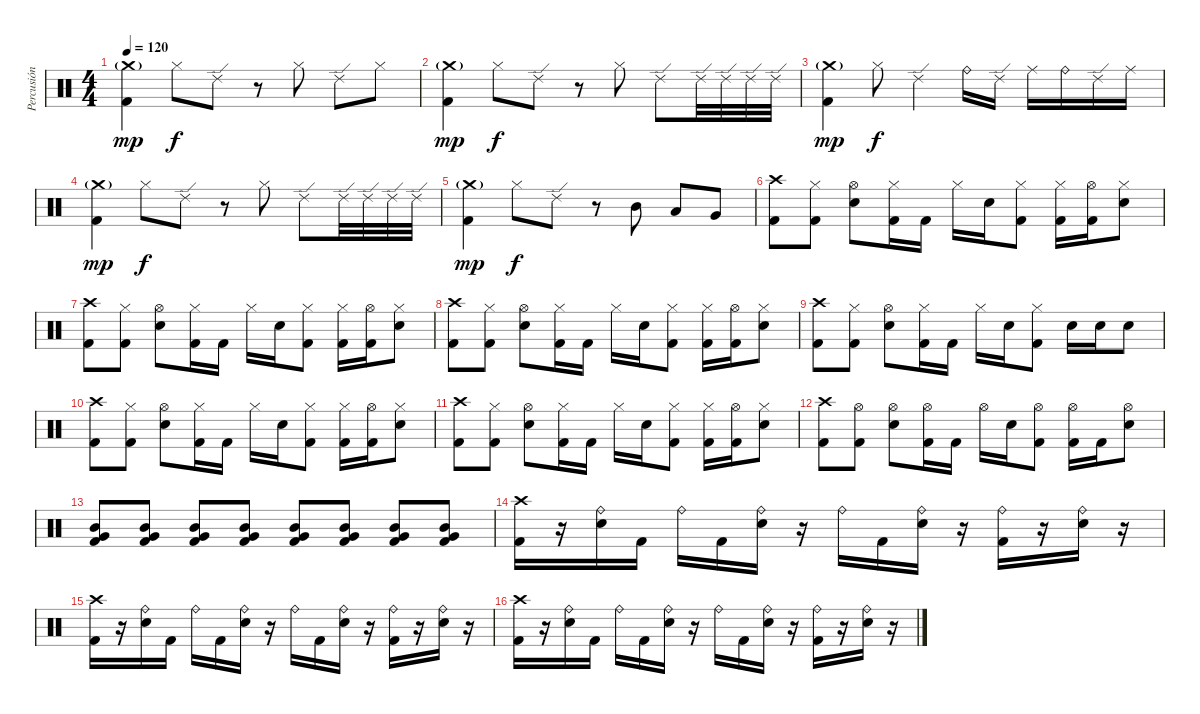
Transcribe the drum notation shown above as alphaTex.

\track ("Percusión" "Percusión") {instrument percussion}
\staff {score}
\articulation defaults
\ts (4 4)
\tempo 120
\clef neutral
\ks c
("Crash medium (hit)"{g} "Kick (hit) 2").4{dy mp} "Hi-Hat (closed)".8{dy f} "Ride (edge) 2".8 r.8 "Hi-Hat (closed)".8 "Ride (edge) 2".8 "Hi-Hat (closed)".8 |
("Crash medium (hit)"{g} "Kick (hit) 2").4{dy mp} "Hi-Hat (closed)".8{dy f} "Ride (edge) 2".8 r.8 "Hi-Hat (closed)".8 "Ride (edge) 2".8 "Ride (edge) 2".32 "Ride (edge) 2".32 "Ride (edge) 2".32 "Ride (edge) 2".32 |
("Crash medium (hit)"{g} "Kick (hit) 2").4{dy mp} "Hi-Hat (closed)".8{dy f} "Ride (edge) 2".4 "Ride (bell)".16 "Ride (edge) 2".16 "Ride (middle)".16 "Ride (bell)".16 "Ride (edge) 2".16 "Ride (middle)".16 |
("Crash medium (hit)"{g} "Kick (hit) 2").4{dy mp} "Hi-Hat (closed)".8{dy f} "Ride (edge) 2".8 r.8 "Hi-Hat (closed)".8 "Ride (edge) 2".8 "Ride (edge) 2".32 "Ride (edge) 2".32 "Ride (edge) 2".32 "Ride (edge) 2".32 |
("Crash medium (hit)"{g} "Kick (hit) 2").4{dy mp} "Hi-Hat (closed)".8{dy f} "Ride (edge) 2".8 r.8 "Mid Tom (hit)".8 "Low Tom (hit)".8 "Very Low Tom (hit)".8 |
("Crash high (hit)" "Kick (hit) 2").8 ("Hi-Hat (closed)" "Kick (hit) 2").8 ("Hi-Hat (open)" "Electric Snare (hit)").8 ("Hi-Hat (closed)" "Kick (hit) 2").16 "Kick (hit) 2".16 "Hi-Hat (closed)".16 "Electric Snare (hit)".16 ("Hi-Hat (closed)" "Kick (hit) 2").8 ("Hi-Hat (closed)" "Kick (hit) 2").16 ("Hi-Hat (open)" "Kick (hit) 2").16 ("Hi-Hat (closed)" "Electric Snare (hit)").8 |
("Crash high (hit)" "Kick (hit) 2").8 ("Hi-Hat (closed)" "Kick (hit) 2").8 ("Hi-Hat (open)" "Electric Snare (hit)").8 ("Hi-Hat (closed)" "Kick (hit) 2").16 "Kick (hit) 2".16 "Hi-Hat (closed)".16 "Electric Snare (hit)".16 ("Hi-Hat (closed)" "Kick (hit) 2").8 ("Hi-Hat (closed)" "Kick (hit) 2").16 ("Hi-Hat (open)" "Kick (hit) 2").16 ("Hi-Hat (closed)" "Electric Snare (hit)").8 |
("Crash high (hit)" "Kick (hit) 2").8 ("Hi-Hat (closed)" "Kick (hit) 2").8 ("Hi-Hat (open)" "Electric Snare (hit)").8 ("Hi-Hat (closed)" "Kick (hit) 2").16 "Kick (hit) 2".16 "Hi-Hat (closed)".16 "Electric Snare (hit)".16 ("Hi-Hat (closed)" "Kick (hit) 2").8 ("Hi-Hat (closed)" "Kick (hit) 2").16 ("Hi-Hat (open)" "Kick (hit) 2").16 ("Hi-Hat (closed)" "Electric Snare (hit)").8 |
("Crash high (hit)" "Kick (hit) 2").8 ("Hi-Hat (closed)" "Kick (hit) 2").8 ("Hi-Hat (open)" "Electric Snare (hit)").8 ("Hi-Hat (closed)" "Kick (hit) 2").16 "Kick (hit) 2".16 "Hi-Hat (closed)".16 "Electric Snare (hit)".16 ("Hi-Hat (closed)" "Kick (hit) 2").8 "Electric Snare (hit)".16 "Electric Snare (hit)".16 "Electric Snare (hit)".8 |
("Crash high (hit)" "Kick (hit) 2").8 ("Hi-Hat (closed)" "Kick (hit) 2").8 ("Hi-Hat (open)" "Electric Snare (hit)").8 ("Hi-Hat (closed)" "Kick (hit) 2").16 "Kick (hit) 2".16 "Hi-Hat (closed)".16 "Electric Snare (hit)".16 ("Hi-Hat (closed)" "Kick (hit) 2").8 ("Hi-Hat (closed)" "Kick (hit) 2").16 ("Hi-Hat (open)" "Kick (hit) 2").16 ("Hi-Hat (closed)" "Electric Snare (hit)").8 |
("Crash high (hit)" "Kick (hit) 2").8 ("Hi-Hat (closed)" "Kick (hit) 2").8 ("Hi-Hat (open)" "Electric Snare (hit)").8 ("Hi-Hat (closed)" "Kick (hit) 2").16 "Kick (hit) 2".16 "Hi-Hat (closed)".16 "Electric Snare (hit)".16 ("Hi-Hat (closed)" "Kick (hit) 2").8 ("Hi-Hat (closed)" "Kick (hit) 2").16 ("Hi-Hat (open)" "Kick (hit) 2").16 ("Hi-Hat (closed)" "Electric Snare (hit)").8 |
("Crash high (hit)" "Kick (hit) 2").8 ("Hi-Hat (open)" "Kick (hit) 2").8 ("Hi-Hat (open)" "Electric Snare (hit)").8 ("Hi-Hat (open)" "Kick (hit) 2").16 "Kick (hit) 2".16 "Hi-Hat (open)".16 "Electric Snare (hit)".16 ("Hi-Hat (open)" "Kick (hit) 2").8 ("Hi-Hat (open)" "Kick (hit) 2").16 "Kick (hit) 2".16 ("Hi-Hat (open)" "Electric Snare (hit)").8 |
("Mid Tom (hit)" "Very Low Tom (hit)" "Kick (hit) 2").8 ("Mid Tom (hit)" "Very Low Tom (hit)" "Kick (hit) 2").8 ("Mid Tom (hit)" "Very Low Tom (hit)" "Kick (hit) 2").8 ("Mid Tom (hit)" "Very Low Tom (hit)" "Kick (hit) 2").8 ("Mid Tom (hit)" "Very Low Tom (hit)" "Kick (hit) 2").8 ("Mid Tom (hit)" "Very Low Tom (hit)" "Kick (hit) 2").8 ("Mid Tom (hit)" "Very Low Tom (hit)" "Kick (hit) 2").8 ("Mid Tom (hit)" "Very Low Tom (hit)" "Kick (hit) 2").8 |
("Crash high (hit)" "Kick (hit) 2").16 r.16 ("Ride (bell)" "Electric Snare (hit)").16 "Kick (hit) 2".16 "Ride (bell)".16 "Kick (hit) 2".16 ("Ride (bell)" "Electric Snare (hit)").16 r.16 "Ride (bell)".16 "Kick (hit) 2".16 ("Ride (bell)" "Electric Snare (hit)").16 r.16 ("Ride (bell)" "Kick (hit) 2").16 r.16 ("Ride (bell)" "Electric Snare (hit)").16 r.16 |
("Crash high (hit)" "Kick (hit) 2").16 r.16 ("Ride (bell)" "Electric Snare (hit)").16 "Kick (hit) 2".16 "Ride (bell)".16 "Kick (hit) 2".16 ("Ride (bell)" "Electric Snare (hit)").16 r.16 "Ride (bell)".16 "Kick (hit) 2".16 ("Ride (bell)" "Electric Snare (hit)").16 r.16 ("Ride (bell)" "Kick (hit) 2").16 r.16 ("Ride (bell)" "Electric Snare (hit)").16 r.16 |
("Crash high (hit)" "Kick (hit) 2").16 r.16 ("Ride (bell)" "Electric Snare (hit)").16 "Kick (hit) 2".16 "Ride (bell)".16 "Kick (hit) 2".16 ("Ride (bell)" "Electric Snare (hit)").16 r.16 "Ride (bell)".16 "Kick (hit) 2".16 ("Ride (bell)" "Electric Snare (hit)").16 r.16 ("Ride (bell)" "Kick (hit) 2").16 r.16 ("Ride (bell)" "Electric Snare (hit)").16 r.16
